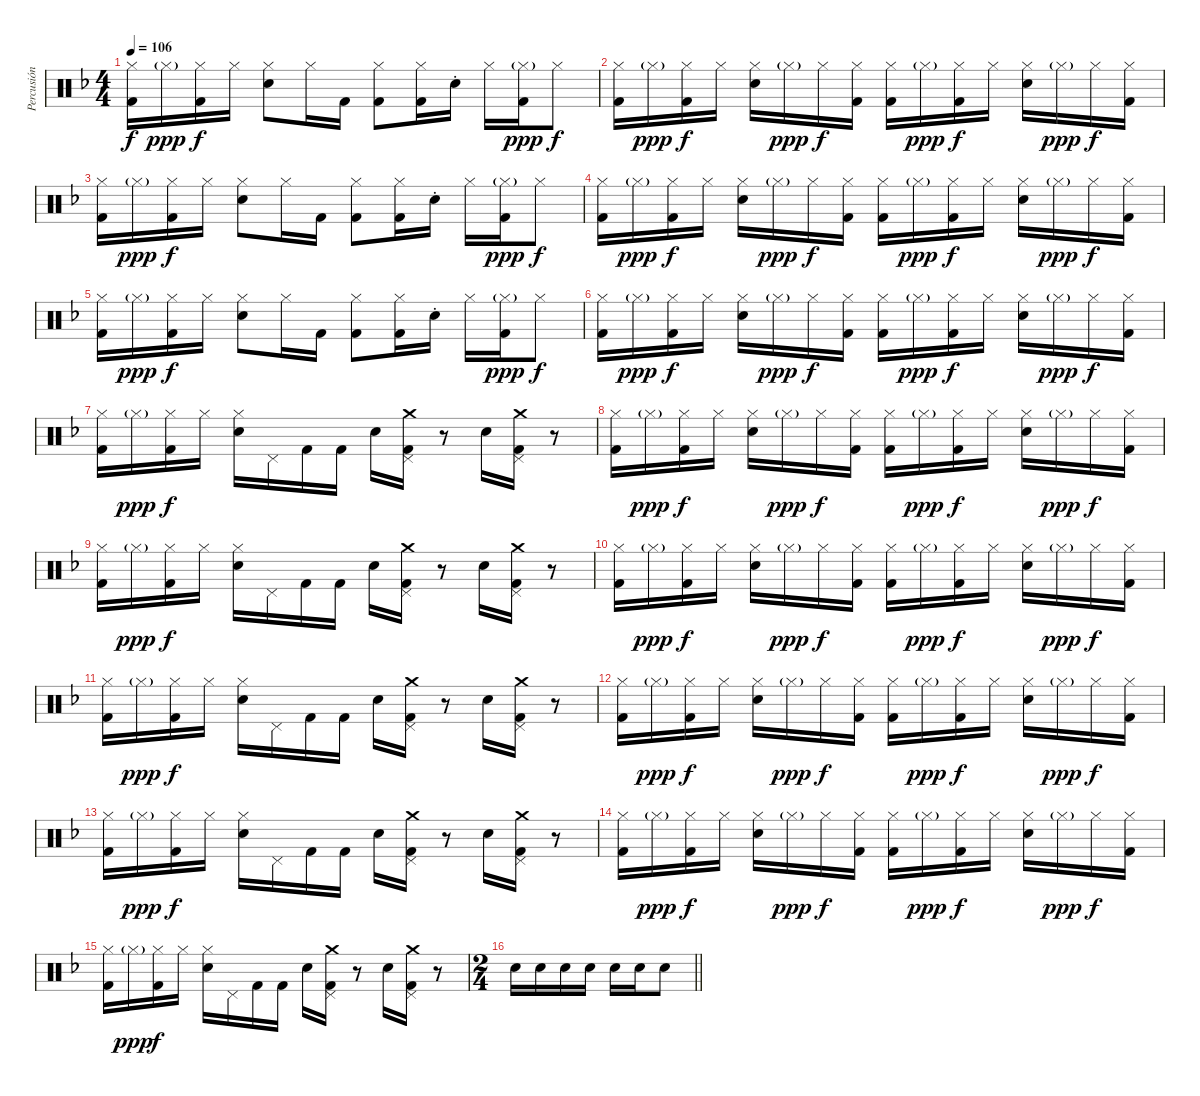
\track ("Percusión" "Percusión") {instrument percussion}
\staff {score}
\articulation defaults
\ts (4 4)
\tempo 106
\clef neutral
\ks f
("Hi-Hat (closed)" "Kick (hit) 2").16{dy f} "Hi-Hat (closed)"{g}.16{dy ppp} ("Hi-Hat (closed)" "Kick (hit) 2").16{dy f} "Hi-Hat (closed)".16 ("Hi-Hat (closed)" "Snare (hit) 2").8 "Hi-Hat (closed)".16 "Kick (hit) 2".16 ("Hi-Hat (closed)" "Kick (hit) 2").8 ("Hi-Hat (closed)" "Kick (hit) 2").16 "Snare (hit) 2"{st}.16 "Hi-Hat (closed)".16 ("Hi-Hat (closed)"{g} "Kick (hit) 2").16{dy ppp} "Hi-Hat (closed)".8{dy f} |
("Hi-Hat (closed)" "Kick (hit) 2").16 "Hi-Hat (closed)"{g}.16{dy ppp} ("Hi-Hat (closed)" "Kick (hit) 2").16{dy f} "Hi-Hat (closed)".16 ("Hi-Hat (closed)" "Snare (hit) 2").16 "Hi-Hat (closed)"{g}.16{dy ppp} "Hi-Hat (closed)".16{dy f} ("Hi-Hat (closed)" "Kick (hit) 2").16 ("Hi-Hat (closed)" "Kick (hit) 2").16 "Hi-Hat (closed)"{g}.16{dy ppp} ("Hi-Hat (closed)" "Kick (hit) 2").16{dy f} "Hi-Hat (closed)".16 ("Hi-Hat (closed)" "Snare (hit) 2").16 "Hi-Hat (closed)"{g}.16{dy ppp} "Hi-Hat (closed)".16{dy f} ("Hi-Hat (closed)" "Kick (hit) 2").16 |
("Hi-Hat (closed)" "Kick (hit) 2").16 "Hi-Hat (closed)"{g}.16{dy ppp} ("Hi-Hat (closed)" "Kick (hit) 2").16{dy f} "Hi-Hat (closed)".16 ("Hi-Hat (closed)" "Snare (hit) 2").8 "Hi-Hat (closed)".16 "Kick (hit) 2".16 ("Hi-Hat (closed)" "Kick (hit) 2").8 ("Hi-Hat (closed)" "Kick (hit) 2").16 "Snare (hit) 2"{st}.16 "Hi-Hat (closed)".16 ("Hi-Hat (closed)"{g} "Kick (hit) 2").16{dy ppp} "Hi-Hat (closed)".8{dy f} |
("Hi-Hat (closed)" "Kick (hit) 2").16 "Hi-Hat (closed)"{g}.16{dy ppp} ("Hi-Hat (closed)" "Kick (hit) 2").16{dy f} "Hi-Hat (closed)".16 ("Hi-Hat (closed)" "Snare (hit) 2").16 "Hi-Hat (closed)"{g}.16{dy ppp} "Hi-Hat (closed)".16{dy f} ("Hi-Hat (closed)" "Kick (hit) 2").16 ("Hi-Hat (closed)" "Kick (hit) 2").16 "Hi-Hat (closed)"{g}.16{dy ppp} ("Hi-Hat (closed)" "Kick (hit) 2").16{dy f} "Hi-Hat (closed)".16 ("Hi-Hat (closed)" "Snare (hit) 2").16 "Hi-Hat (closed)"{g}.16{dy ppp} "Hi-Hat (closed)".16{dy f} ("Hi-Hat (closed)" "Kick (hit) 2").16 |
("Hi-Hat (closed)" "Kick (hit) 2").16 "Hi-Hat (closed)"{g}.16{dy ppp} ("Hi-Hat (closed)" "Kick (hit) 2").16{dy f} "Hi-Hat (closed)".16 ("Hi-Hat (closed)" "Snare (hit) 2").8 "Hi-Hat (closed)".16 "Kick (hit) 2".16 ("Hi-Hat (closed)" "Kick (hit) 2").8 ("Hi-Hat (closed)" "Kick (hit) 2").16 "Snare (hit) 2"{st}.16 "Hi-Hat (closed)".16 ("Hi-Hat (closed)"{g} "Kick (hit) 2").16{dy ppp} "Hi-Hat (closed)".8{dy f} |
("Hi-Hat (closed)" "Kick (hit) 2").16 "Hi-Hat (closed)"{g}.16{dy ppp} ("Hi-Hat (closed)" "Kick (hit) 2").16{dy f} "Hi-Hat (closed)".16 ("Hi-Hat (closed)" "Snare (hit) 2").16 "Hi-Hat (closed)"{g}.16{dy ppp} "Hi-Hat (closed)".16{dy f} ("Hi-Hat (closed)" "Kick (hit) 2").16 ("Hi-Hat (closed)" "Kick (hit) 2").16 "Hi-Hat (closed)"{g}.16{dy ppp} ("Hi-Hat (closed)" "Kick (hit) 2").16{dy f} "Hi-Hat (closed)".16 ("Hi-Hat (closed)" "Snare (hit) 2").16 "Hi-Hat (closed)"{g}.16{dy ppp} "Hi-Hat (closed)".16{dy f} ("Hi-Hat (closed)" "Kick (hit) 2").16 |
("Hi-Hat (closed)" "Kick (hit) 2").16 "Hi-Hat (closed)"{g}.16{dy ppp} ("Hi-Hat (closed)" "Kick (hit) 2").16{dy f} "Hi-Hat (closed)".16 ("Hi-Hat (closed)" "Snare (hit) 2").16 "Pedal Hi-Hat (hit)".16 "Kick (hit) 2".16 "Kick (hit) 2".16 "Snare (hit) 2".16 ("Crash medium (hit)" "Pedal Hi-Hat (hit)" "Kick (hit) 2").16 r.8 "Snare (hit) 2".16 ("Crash medium (hit)" "Pedal Hi-Hat (hit)" "Kick (hit) 2").16 r.8 |
("Hi-Hat (closed)" "Kick (hit) 2").16 "Hi-Hat (closed)"{g}.16{dy ppp} ("Hi-Hat (closed)" "Kick (hit) 2").16{dy f} "Hi-Hat (closed)".16 ("Hi-Hat (closed)" "Snare (hit) 2").16 "Hi-Hat (closed)"{g}.16{dy ppp} "Hi-Hat (closed)".16{dy f} ("Hi-Hat (closed)" "Kick (hit) 2").16 ("Hi-Hat (closed)" "Kick (hit) 2").16 "Hi-Hat (closed)"{g}.16{dy ppp} ("Hi-Hat (closed)" "Kick (hit) 2").16{dy f} "Hi-Hat (closed)".16 ("Hi-Hat (closed)" "Snare (hit) 2").16 "Hi-Hat (closed)"{g}.16{dy ppp} "Hi-Hat (closed)".16{dy f} ("Hi-Hat (closed)" "Kick (hit) 2").16 |
("Hi-Hat (closed)" "Kick (hit) 2").16 "Hi-Hat (closed)"{g}.16{dy ppp} ("Hi-Hat (closed)" "Kick (hit) 2").16{dy f} "Hi-Hat (closed)".16 ("Hi-Hat (closed)" "Snare (hit) 2").16 "Pedal Hi-Hat (hit)".16 "Kick (hit) 2".16 "Kick (hit) 2".16 "Snare (hit) 2".16 ("Crash medium (hit)" "Pedal Hi-Hat (hit)" "Kick (hit) 2").16 r.8 "Snare (hit) 2".16 ("Crash medium (hit)" "Pedal Hi-Hat (hit)" "Kick (hit) 2").16 r.8 |
("Hi-Hat (closed)" "Kick (hit) 2").16 "Hi-Hat (closed)"{g}.16{dy ppp} ("Hi-Hat (closed)" "Kick (hit) 2").16{dy f} "Hi-Hat (closed)".16 ("Hi-Hat (closed)" "Snare (hit) 2").16 "Hi-Hat (closed)"{g}.16{dy ppp} "Hi-Hat (closed)".16{dy f} ("Hi-Hat (closed)" "Kick (hit) 2").16 ("Hi-Hat (closed)" "Kick (hit) 2").16 "Hi-Hat (closed)"{g}.16{dy ppp} ("Hi-Hat (closed)" "Kick (hit) 2").16{dy f} "Hi-Hat (closed)".16 ("Hi-Hat (closed)" "Snare (hit) 2").16 "Hi-Hat (closed)"{g}.16{dy ppp} "Hi-Hat (closed)".16{dy f} ("Hi-Hat (closed)" "Kick (hit) 2").16 |
("Hi-Hat (closed)" "Kick (hit) 2").16 "Hi-Hat (closed)"{g}.16{dy ppp} ("Hi-Hat (closed)" "Kick (hit) 2").16{dy f} "Hi-Hat (closed)".16 ("Hi-Hat (closed)" "Snare (hit) 2").16 "Pedal Hi-Hat (hit)".16 "Kick (hit) 2".16 "Kick (hit) 2".16 "Snare (hit) 2".16 ("Crash medium (hit)" "Pedal Hi-Hat (hit)" "Kick (hit) 2").16 r.8 "Snare (hit) 2".16 ("Crash medium (hit)" "Pedal Hi-Hat (hit)" "Kick (hit) 2").16 r.8 |
("Hi-Hat (closed)" "Kick (hit) 2").16 "Hi-Hat (closed)"{g}.16{dy ppp} ("Hi-Hat (closed)" "Kick (hit) 2").16{dy f} "Hi-Hat (closed)".16 ("Hi-Hat (closed)" "Snare (hit) 2").16 "Hi-Hat (closed)"{g}.16{dy ppp} "Hi-Hat (closed)".16{dy f} ("Hi-Hat (closed)" "Kick (hit) 2").16 ("Hi-Hat (closed)" "Kick (hit) 2").16 "Hi-Hat (closed)"{g}.16{dy ppp} ("Hi-Hat (closed)" "Kick (hit) 2").16{dy f} "Hi-Hat (closed)".16 ("Hi-Hat (closed)" "Snare (hit) 2").16 "Hi-Hat (closed)"{g}.16{dy ppp} "Hi-Hat (closed)".16{dy f} ("Hi-Hat (closed)" "Kick (hit) 2").16 |
("Hi-Hat (closed)" "Kick (hit) 2").16 "Hi-Hat (closed)"{g}.16{dy ppp} ("Hi-Hat (closed)" "Kick (hit) 2").16{dy f} "Hi-Hat (closed)".16 ("Hi-Hat (closed)" "Snare (hit) 2").16 "Pedal Hi-Hat (hit)".16 "Kick (hit) 2".16 "Kick (hit) 2".16 "Snare (hit) 2".16 ("Crash medium (hit)" "Pedal Hi-Hat (hit)" "Kick (hit) 2").16 r.8 "Snare (hit) 2".16 ("Crash medium (hit)" "Pedal Hi-Hat (hit)" "Kick (hit) 2").16 r.8 |
("Hi-Hat (closed)" "Kick (hit) 2").16 "Hi-Hat (closed)"{g}.16{dy ppp} ("Hi-Hat (closed)" "Kick (hit) 2").16{dy f} "Hi-Hat (closed)".16 ("Hi-Hat (closed)" "Snare (hit) 2").16 "Hi-Hat (closed)"{g}.16{dy ppp} "Hi-Hat (closed)".16{dy f} ("Hi-Hat (closed)" "Kick (hit) 2").16 ("Hi-Hat (closed)" "Kick (hit) 2").16 "Hi-Hat (closed)"{g}.16{dy ppp} ("Hi-Hat (closed)" "Kick (hit) 2").16{dy f} "Hi-Hat (closed)".16 ("Hi-Hat (closed)" "Snare (hit) 2").16 "Hi-Hat (closed)"{g}.16{dy ppp} "Hi-Hat (closed)".16{dy f} ("Hi-Hat (closed)" "Kick (hit) 2").16 |
("Hi-Hat (closed)" "Kick (hit) 2").16 "Hi-Hat (closed)"{g}.16{dy ppp} ("Hi-Hat (closed)" "Kick (hit) 2").16{dy f} "Hi-Hat (closed)".16 ("Hi-Hat (closed)" "Snare (hit) 2").16 "Pedal Hi-Hat (hit)".16 "Kick (hit) 2".16 "Kick (hit) 2".16 "Snare (hit) 2".16 ("Crash medium (hit)" "Pedal Hi-Hat (hit)" "Kick (hit) 2").16 r.8 "Snare (hit) 2".16 ("Crash medium (hit)" "Pedal Hi-Hat (hit)" "Kick (hit) 2").16 r.8 |
\ts (2 4)
\barLineRight lightlight "Snare (hit) 2".16 "Snare (hit) 2".16 "Snare (hit) 2".16 "Snare (hit) 2".16 "Snare (hit) 2".16 "Snare (hit) 2".16 "Snare (hit) 2".8
